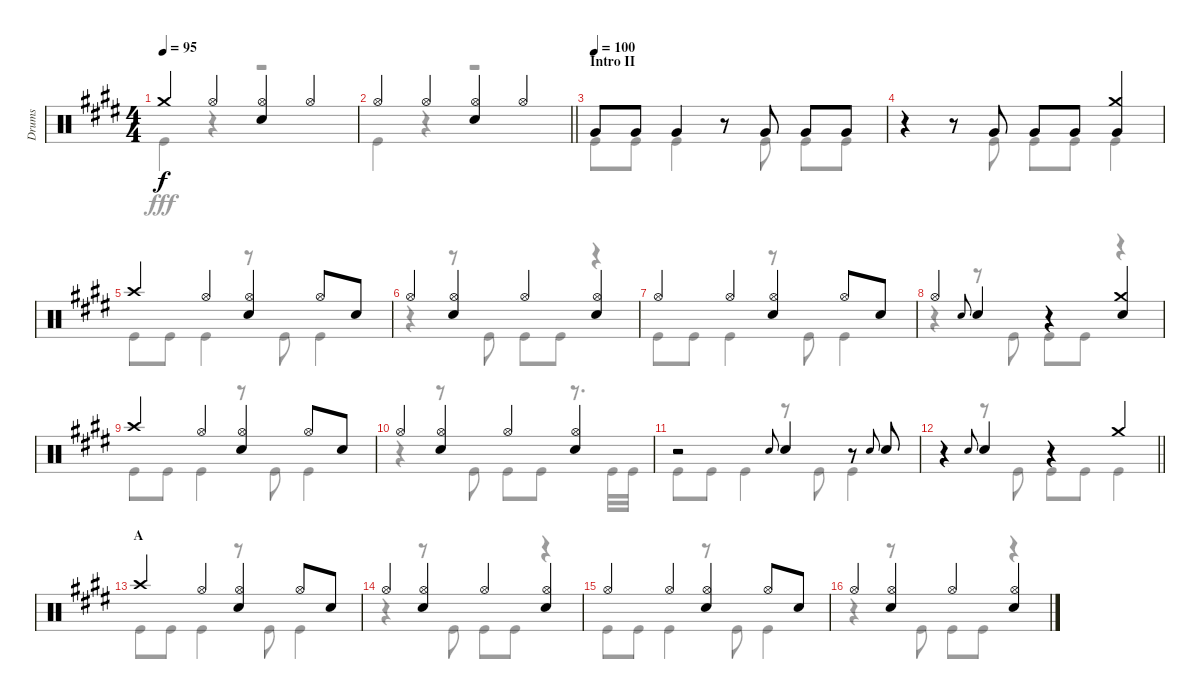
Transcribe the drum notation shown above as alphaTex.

\track ("Drums" "Drums") {instrument percussion}
\staff {score}
\articulation defaults
\voice
\ts (4 4)
\tempo 95
\clef neutral
\ks e "Crash medium (hit)".4{dy f} "Hi-Hat (open)".4
("Hi-Hat (open)" "Snare (hit) 2").4 "Hi-Hat (open)".4 |
\barLineRight lightlight "Hi-Hat (open)".4 "Hi-Hat (open)".4
("Hi-Hat (open)" "Snare (hit) 2").4 "Hi-Hat (open)".4 |
\section ("" "Intro II")
\tempo (100)
"Very Low Tom (hit)".8 "Very Low Tom (hit)".8 "Very Low Tom (hit)".4 r.8 "Very Low Tom (hit)".8 "Very Low Tom (hit)".8 "Very Low Tom (hit)".8 |
r.4 r.8 "Very Low Tom (hit)".8 "Very Low Tom (hit)".8 "Very Low Tom (hit)".8 ("Crash medium (hit)" "Very Low Tom (hit)").4 |
"Crash high (hit)".4 "Hi-Hat (open)".4 ("Hi-Hat (open)" "Snare (hit) 2").4 "Hi-Hat (open)".8 "Snare (hit) 2".8 |
"Hi-Hat (open)".4 ("Hi-Hat (open)" "Snare (hit) 2").4 "Hi-Hat (open)".4 ("Hi-Hat (open)" "Snare (hit) 2").4 |
"Hi-Hat (open)".4 "Hi-Hat (open)".4 ("Hi-Hat (open)" "Snare (hit) 2").4 "Hi-Hat (open)".8 "Snare (hit) 2".8 |
"Hi-Hat (open)".4 "Snare (hit) 2".8{gr onbeat} "Snare (hit) 2".4 r.4 ("Crash medium (hit)" "Snare (hit) 2").4 |
"Crash high (hit)".4 "Hi-Hat (open)".4 ("Hi-Hat (open)" "Snare (hit) 2").4 "Hi-Hat (open)".8 "Snare (hit) 2".8 |
"Hi-Hat (open)".4 ("Hi-Hat (open)" "Snare (hit) 2").4 "Hi-Hat (open)".4 ("Hi-Hat (open)" "Snare (hit) 2").4 |
r.2 "Snare (hit) 2".8{gr onbeat} "Snare (hit) 2".4 r.8 "Snare (hit) 2".8{gr onbeat} "Snare (hit) 2".8 |
\barLineRight lightlight
r.4 "Snare (hit) 2".8{gr onbeat} "Snare (hit) 2".4 r.4 "Crash medium (hit)".4 |
\section ("" "A")
"Crash high (hit)".4 "Hi-Hat (open)".4 ("Hi-Hat (open)" "Snare (hit) 2").4 "Hi-Hat (open)".8 "Snare (hit) 2".8 |
"Hi-Hat (open)".4 ("Hi-Hat (open)" "Snare (hit) 2").4 "Hi-Hat (open)".4 ("Hi-Hat (open)" "Snare (hit) 2").4 |
"Hi-Hat (open)".4 "Hi-Hat (open)".4 ("Hi-Hat (open)" "Snare (hit) 2").4 "Hi-Hat (open)".8 "Snare (hit) 2".8 |
"Hi-Hat (open)".4 ("Hi-Hat (open)" "Snare (hit) 2").4 "Hi-Hat (open)".4 ("Hi-Hat (open)" "Snare (hit) 2").4
\voice
\clef neutral
\ottava regular
\simile none
\ks e "Kick (hit)".4{dy fff}
r.4 r.2 |
\barLineRight lightlight "Kick (hit)".4
r.4 r.2 |
"Kick (hit)".8 "Kick (hit)".8 "Kick (hit)".4 r.8 "Kick (hit)".8 "Kick (hit)".8 "Kick (hit)".8 |
r.4 r.8 "Kick (hit)".8 "Kick (hit)".8 "Kick (hit)".8 "Kick (hit)".4 |
"Kick (hit)".8 "Kick (hit)".8 "Kick (hit)".4 r.8 "Kick (hit)".8 "Kick (hit)".4 |
r.4 r.8 "Kick (hit)".8 "Kick (hit)".8 "Kick (hit)".8 r.4 |
"Kick (hit)".8 "Kick (hit)".8 "Kick (hit)".4 r.8 "Kick (hit)".8 "Kick (hit)".4 |
r.4 r.8 "Kick (hit)".8 "Kick (hit)".8 "Kick (hit)".8 r.4 |
"Kick (hit)".8 "Kick (hit)".8 "Kick (hit)".4 r.8 "Kick (hit)".8 "Kick (hit)".4 |
r.4 r.8 "Kick (hit)".8 "Kick (hit)".8 "Kick (hit)".8 r.8{d} "Kick (hit)".32 "Kick (hit)".32 |
"Kick (hit)".8 "Kick (hit)".8 "Kick (hit)".4 r.8 "Kick (hit)".8 "Kick (hit)".4 |
\barLineRight lightlight
r.4 r.8 "Kick (hit)".8 "Kick (hit)".8 "Kick (hit)".8 "Kick (hit)".4 |
"Kick (hit)".8 "Kick (hit)".8 "Kick (hit)".4 r.8 "Kick (hit)".8 "Kick (hit)".4 |
r.4 r.8 "Kick (hit)".8 "Kick (hit)".8 "Kick (hit)".8 r.4 |
"Kick (hit)".8 "Kick (hit)".8 "Kick (hit)".4 r.8 "Kick (hit)".8 "Kick (hit)".4 |
r.4 r.8 "Kick (hit)".8 "Kick (hit)".8 "Kick (hit)".8 r.4
